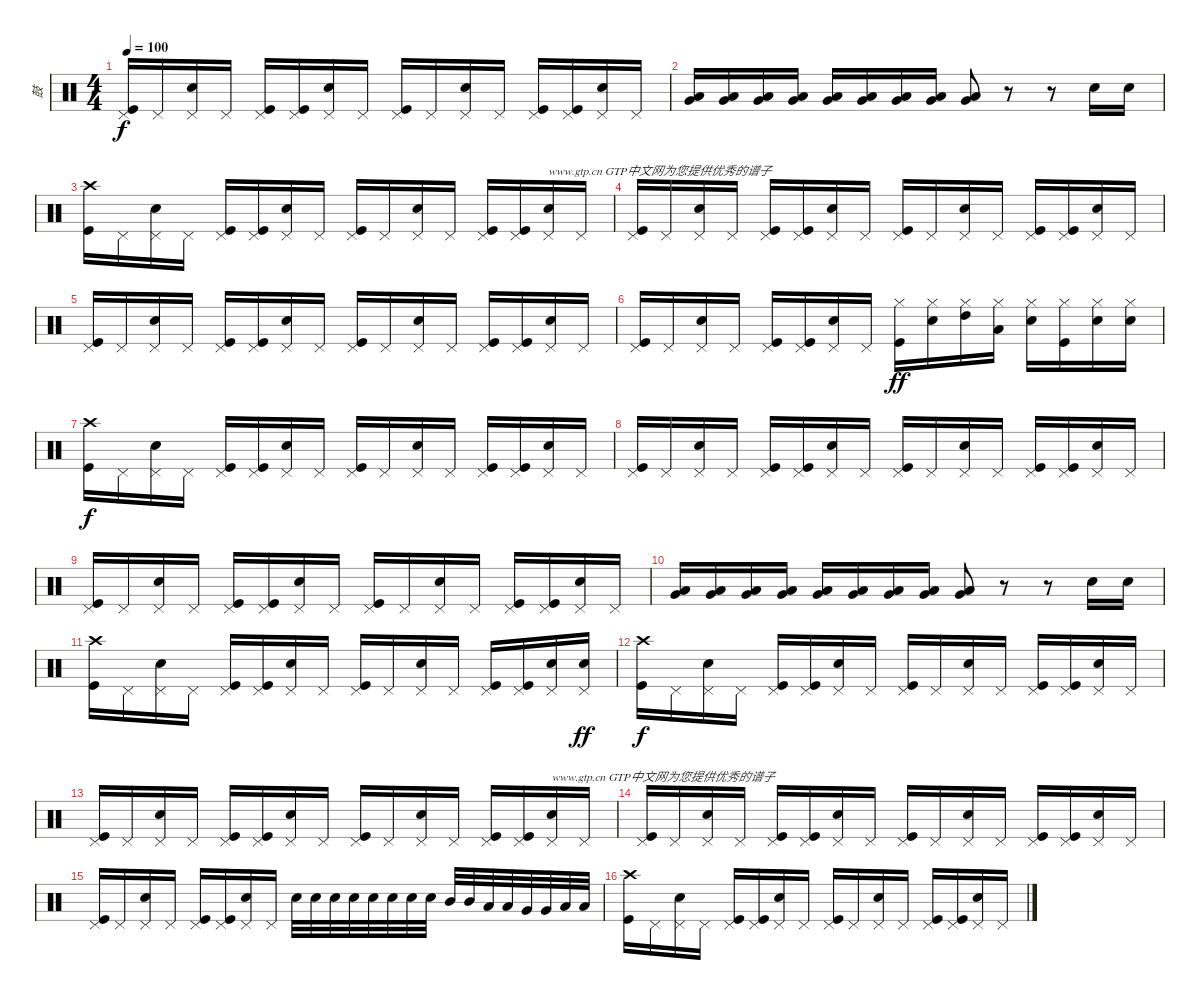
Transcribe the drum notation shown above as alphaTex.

\track ("鼓" "鼓") {instrument percussion}
\staff {score}
\articulation defaults
\ts (4 4)
\tempo 100
\clef neutral
\ks c
("Kick (hit)" "Pedal Hi-Hat (hit)").16{dy f} "Pedal Hi-Hat (hit)".16 ("Snare (hit) 2" "Pedal Hi-Hat (hit)").16 "Pedal Hi-Hat (hit)".16 ("Kick (hit)" "Pedal Hi-Hat (hit)").16 ("Kick (hit)" "Pedal Hi-Hat (hit)").16 ("Snare (hit) 2" "Pedal Hi-Hat (hit)").16 "Pedal Hi-Hat (hit)".16 ("Kick (hit)" "Pedal Hi-Hat (hit)").16 "Pedal Hi-Hat (hit)".16 ("Snare (hit) 2" "Pedal Hi-Hat (hit)").16 "Pedal Hi-Hat (hit)".16 ("Kick (hit)" "Pedal Hi-Hat (hit)").16 ("Kick (hit)" "Pedal Hi-Hat (hit)").16 ("Snare (hit) 2" "Pedal Hi-Hat (hit)").16 "Pedal Hi-Hat (hit)".16 |
("Very Low Tom (hit)" "Low Tom (hit)").16 ("Very Low Tom (hit)" "Low Tom (hit)").16 ("Very Low Tom (hit)" "Low Tom (hit)").16 ("Very Low Tom (hit)" "Low Tom (hit)").16 ("Very Low Tom (hit)" "Low Tom (hit)").16 ("Very Low Tom (hit)" "Low Tom (hit)").16 ("Very Low Tom (hit)" "Low Tom (hit)").16 ("Very Low Tom (hit)" "Low Tom (hit)").16 ("Very Low Tom (hit)" "Low Tom (hit)").8 r.8 r.8 "Snare (hit) 2".16 "Snare (hit) 2".16 |
("Kick (hit)" "Crash high (hit)").16 "Pedal Hi-Hat (hit)".16 ("Snare (hit) 2" "Pedal Hi-Hat (hit)").16 "Pedal Hi-Hat (hit)".16 ("Kick (hit)" "Pedal Hi-Hat (hit)").16 ("Kick (hit)" "Pedal Hi-Hat (hit)").16 ("Snare (hit) 2" "Pedal Hi-Hat (hit)").16 "Pedal Hi-Hat (hit)".16 ("Kick (hit)" "Pedal Hi-Hat (hit)").16 "Pedal Hi-Hat (hit)".16 ("Snare (hit) 2" "Pedal Hi-Hat (hit)").16 "Pedal Hi-Hat (hit)".16 ("Kick (hit)" "Pedal Hi-Hat (hit)").16 ("Kick (hit)" "Pedal Hi-Hat (hit)").16 ("Snare (hit) 2" "Pedal Hi-Hat (hit)").16{txt "www.gtp.cn GTP中文网为您提供优秀的谱子"} "Pedal Hi-Hat (hit)".16 |
("Kick (hit)" "Pedal Hi-Hat (hit)").16 "Pedal Hi-Hat (hit)".16 ("Snare (hit) 2" "Pedal Hi-Hat (hit)").16 "Pedal Hi-Hat (hit)".16 ("Kick (hit)" "Pedal Hi-Hat (hit)").16 ("Kick (hit)" "Pedal Hi-Hat (hit)").16 ("Snare (hit) 2" "Pedal Hi-Hat (hit)").16 "Pedal Hi-Hat (hit)".16 ("Kick (hit)" "Pedal Hi-Hat (hit)").16 "Pedal Hi-Hat (hit)".16 ("Snare (hit) 2" "Pedal Hi-Hat (hit)").16 "Pedal Hi-Hat (hit)".16 ("Kick (hit)" "Pedal Hi-Hat (hit)").16 ("Kick (hit)" "Pedal Hi-Hat (hit)").16 ("Snare (hit) 2" "Pedal Hi-Hat (hit)").16 "Pedal Hi-Hat (hit)".16 |
("Kick (hit)" "Pedal Hi-Hat (hit)").16 "Pedal Hi-Hat (hit)".16 ("Snare (hit) 2" "Pedal Hi-Hat (hit)").16 "Pedal Hi-Hat (hit)".16 ("Kick (hit)" "Pedal Hi-Hat (hit)").16 ("Kick (hit)" "Pedal Hi-Hat (hit)").16 ("Snare (hit) 2" "Pedal Hi-Hat (hit)").16 "Pedal Hi-Hat (hit)".16 ("Kick (hit)" "Pedal Hi-Hat (hit)").16 "Pedal Hi-Hat (hit)".16 ("Snare (hit) 2" "Pedal Hi-Hat (hit)").16 "Pedal Hi-Hat (hit)".16 ("Kick (hit)" "Pedal Hi-Hat (hit)").16 ("Kick (hit)" "Pedal Hi-Hat (hit)").16 ("Snare (hit) 2" "Pedal Hi-Hat (hit)").16 "Pedal Hi-Hat (hit)".16 |
("Kick (hit)" "Pedal Hi-Hat (hit)").16 "Pedal Hi-Hat (hit)".16 ("Snare (hit) 2" "Pedal Hi-Hat (hit)").16 "Pedal Hi-Hat (hit)".16 ("Kick (hit)" "Pedal Hi-Hat (hit)").16 ("Kick (hit)" "Pedal Hi-Hat (hit)").16 ("Snare (hit) 2" "Pedal Hi-Hat (hit)").16 "Pedal Hi-Hat (hit)".16 ("Hi-Hat (closed)" "Kick (hit)").16{dy ff} ("Hi-Hat (closed)" "Snare (hit) 2").16 ("Hi-Hat (closed)" "High Tom (hit)").16 ("Hi-Hat (closed)" "Low Tom (hit)").16 ("Hi-Hat (closed)" "Snare (hit) 2").16 ("Hi-Hat (closed)" "Kick (hit)").16 ("Hi-Hat (closed)" "Snare (hit) 2").16 ("Hi-Hat (closed)" "Snare (hit) 2").16 |
("Kick (hit)" "Crash high (hit)").16{dy f} "Pedal Hi-Hat (hit)".16 ("Snare (hit) 2" "Pedal Hi-Hat (hit)").16 "Pedal Hi-Hat (hit)".16 ("Kick (hit)" "Pedal Hi-Hat (hit)").16 ("Kick (hit)" "Pedal Hi-Hat (hit)").16 ("Snare (hit) 2" "Pedal Hi-Hat (hit)").16 "Pedal Hi-Hat (hit)".16 ("Kick (hit)" "Pedal Hi-Hat (hit)").16 "Pedal Hi-Hat (hit)".16 ("Snare (hit) 2" "Pedal Hi-Hat (hit)").16 "Pedal Hi-Hat (hit)".16 ("Kick (hit)" "Pedal Hi-Hat (hit)").16 ("Kick (hit)" "Pedal Hi-Hat (hit)").16 ("Snare (hit) 2" "Pedal Hi-Hat (hit)").16 "Pedal Hi-Hat (hit)".16 |
("Kick (hit)" "Pedal Hi-Hat (hit)").16 "Pedal Hi-Hat (hit)".16 ("Snare (hit) 2" "Pedal Hi-Hat (hit)").16 "Pedal Hi-Hat (hit)".16 ("Kick (hit)" "Pedal Hi-Hat (hit)").16 ("Kick (hit)" "Pedal Hi-Hat (hit)").16 ("Snare (hit) 2" "Pedal Hi-Hat (hit)").16 "Pedal Hi-Hat (hit)".16 ("Kick (hit)" "Pedal Hi-Hat (hit)").16 "Pedal Hi-Hat (hit)".16 ("Snare (hit) 2" "Pedal Hi-Hat (hit)").16 "Pedal Hi-Hat (hit)".16 ("Kick (hit)" "Pedal Hi-Hat (hit)").16 ("Kick (hit)" "Pedal Hi-Hat (hit)").16 ("Snare (hit) 2" "Pedal Hi-Hat (hit)").16 "Pedal Hi-Hat (hit)".16 |
("Kick (hit)" "Pedal Hi-Hat (hit)").16 "Pedal Hi-Hat (hit)".16 ("Snare (hit) 2" "Pedal Hi-Hat (hit)").16 "Pedal Hi-Hat (hit)".16 ("Kick (hit)" "Pedal Hi-Hat (hit)").16 ("Kick (hit)" "Pedal Hi-Hat (hit)").16 ("Snare (hit) 2" "Pedal Hi-Hat (hit)").16 "Pedal Hi-Hat (hit)".16 ("Kick (hit)" "Pedal Hi-Hat (hit)").16 "Pedal Hi-Hat (hit)".16 ("Snare (hit) 2" "Pedal Hi-Hat (hit)").16 "Pedal Hi-Hat (hit)".16 ("Kick (hit)" "Pedal Hi-Hat (hit)").16 ("Kick (hit)" "Pedal Hi-Hat (hit)").16 ("Snare (hit) 2" "Pedal Hi-Hat (hit)").16 "Pedal Hi-Hat (hit)".16 |
("Very Low Tom (hit)" "Low Tom (hit)").16 ("Very Low Tom (hit)" "Low Tom (hit)").16 ("Very Low Tom (hit)" "Low Tom (hit)").16 ("Very Low Tom (hit)" "Low Tom (hit)").16 ("Very Low Tom (hit)" "Low Tom (hit)").16 ("Very Low Tom (hit)" "Low Tom (hit)").16 ("Very Low Tom (hit)" "Low Tom (hit)").16 ("Very Low Tom (hit)" "Low Tom (hit)").16 ("Very Low Tom (hit)" "Low Tom (hit)").8 r.8 r.8 "Snare (hit) 2".16 "Snare (hit) 2".16 |
("Kick (hit)" "Crash high (hit)").16 "Pedal Hi-Hat (hit)".16 ("Snare (hit) 2" "Pedal Hi-Hat (hit)").16 "Pedal Hi-Hat (hit)".16 ("Kick (hit)" "Pedal Hi-Hat (hit)").16 ("Kick (hit)" "Pedal Hi-Hat (hit)").16 ("Snare (hit) 2" "Pedal Hi-Hat (hit)").16 "Pedal Hi-Hat (hit)".16 ("Kick (hit)" "Pedal Hi-Hat (hit)").16 "Pedal Hi-Hat (hit)".16 ("Snare (hit) 2" "Pedal Hi-Hat (hit)").16 "Pedal Hi-Hat (hit)".16 ("Kick (hit)" "Pedal Hi-Hat (hit)").16 ("Kick (hit)" "Pedal Hi-Hat (hit)").16 ("Snare (hit) 2" "Pedal Hi-Hat (hit)").16 ("Pedal Hi-Hat (hit)" "Snare (hit) 2").16{dy ff} |
("Kick (hit)" "Crash high (hit)").16{dy f} "Pedal Hi-Hat (hit)".16 ("Snare (hit) 2" "Pedal Hi-Hat (hit)").16 "Pedal Hi-Hat (hit)".16 ("Kick (hit)" "Pedal Hi-Hat (hit)").16 ("Kick (hit)" "Pedal Hi-Hat (hit)").16 ("Snare (hit) 2" "Pedal Hi-Hat (hit)").16 "Pedal Hi-Hat (hit)".16 ("Kick (hit)" "Pedal Hi-Hat (hit)").16 "Pedal Hi-Hat (hit)".16 ("Snare (hit) 2" "Pedal Hi-Hat (hit)").16 "Pedal Hi-Hat (hit)".16 ("Kick (hit)" "Pedal Hi-Hat (hit)").16 ("Kick (hit)" "Pedal Hi-Hat (hit)").16 ("Snare (hit) 2" "Pedal Hi-Hat (hit)").16 "Pedal Hi-Hat (hit)".16 |
("Kick (hit)" "Pedal Hi-Hat (hit)").16 "Pedal Hi-Hat (hit)".16 ("Snare (hit) 2" "Pedal Hi-Hat (hit)").16 "Pedal Hi-Hat (hit)".16 ("Kick (hit)" "Pedal Hi-Hat (hit)").16 ("Kick (hit)" "Pedal Hi-Hat (hit)").16 ("Snare (hit) 2" "Pedal Hi-Hat (hit)").16 "Pedal Hi-Hat (hit)".16 ("Kick (hit)" "Pedal Hi-Hat (hit)").16 "Pedal Hi-Hat (hit)".16 ("Snare (hit) 2" "Pedal Hi-Hat (hit)").16 "Pedal Hi-Hat (hit)".16 ("Kick (hit)" "Pedal Hi-Hat (hit)").16 ("Kick (hit)" "Pedal Hi-Hat (hit)").16 ("Snare (hit) 2" "Pedal Hi-Hat (hit)").16{txt "www.gtp.cn GTP中文网为您提供优秀的谱子"} "Pedal Hi-Hat (hit)".16 |
("Kick (hit)" "Pedal Hi-Hat (hit)").16 "Pedal Hi-Hat (hit)".16 ("Snare (hit) 2" "Pedal Hi-Hat (hit)").16 "Pedal Hi-Hat (hit)".16 ("Kick (hit)" "Pedal Hi-Hat (hit)").16 ("Kick (hit)" "Pedal Hi-Hat (hit)").16 ("Snare (hit) 2" "Pedal Hi-Hat (hit)").16 "Pedal Hi-Hat (hit)".16 ("Kick (hit)" "Pedal Hi-Hat (hit)").16 "Pedal Hi-Hat (hit)".16 ("Snare (hit) 2" "Pedal Hi-Hat (hit)").16 "Pedal Hi-Hat (hit)".16 ("Kick (hit)" "Pedal Hi-Hat (hit)").16 ("Kick (hit)" "Pedal Hi-Hat (hit)").16 ("Snare (hit) 2" "Pedal Hi-Hat (hit)").16 "Pedal Hi-Hat (hit)".16 |
("Kick (hit)" "Pedal Hi-Hat (hit)").16 "Pedal Hi-Hat (hit)".16 ("Snare (hit) 2" "Pedal Hi-Hat (hit)").16 "Pedal Hi-Hat (hit)".16 ("Kick (hit)" "Pedal Hi-Hat (hit)").16 ("Kick (hit)" "Pedal Hi-Hat (hit)").16 ("Snare (hit) 2" "Pedal Hi-Hat (hit)").16 "Pedal Hi-Hat (hit)".16 "Snare (hit) 2".32 "Snare (hit) 2".32 "Snare (hit) 2".32 "Snare (hit) 2".32 "Snare (hit) 2".32 "Snare (hit) 2".32 "Snare (hit) 2".32 "Snare (hit) 2".32 "Mid Tom (hit)".32 "Mid Tom (hit)".32 "Low Tom (hit)".32 "Low Tom (hit)".32 "Very Low Tom (hit)".32 "Very Low Tom (hit)".32 "Low Floor Tom (hit)".32 "Low Floor Tom (hit)".32 |
("Kick (hit)" "Crash high (hit)").16 "Pedal Hi-Hat (hit)".16 ("Snare (hit) 2" "Pedal Hi-Hat (hit)").16 "Pedal Hi-Hat (hit)".16 ("Kick (hit)" "Pedal Hi-Hat (hit)").16 ("Kick (hit)" "Pedal Hi-Hat (hit)").16 ("Snare (hit) 2" "Pedal Hi-Hat (hit)").16 "Pedal Hi-Hat (hit)".16 ("Kick (hit)" "Pedal Hi-Hat (hit)").16 "Pedal Hi-Hat (hit)".16 ("Snare (hit) 2" "Pedal Hi-Hat (hit)").16 "Pedal Hi-Hat (hit)".16 ("Kick (hit)" "Pedal Hi-Hat (hit)").16 ("Kick (hit)" "Pedal Hi-Hat (hit)").16 ("Snare (hit) 2" "Pedal Hi-Hat (hit)").16 "Pedal Hi-Hat (hit)".16
